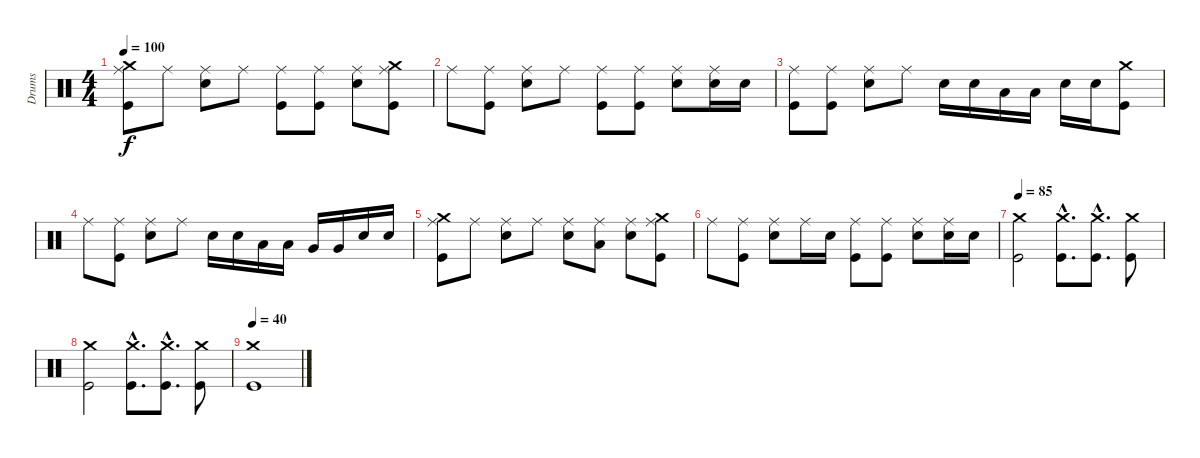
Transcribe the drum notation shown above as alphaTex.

\track ("Drums" "Drums") {instrument percussion}
\staff {score}
\articulation defaults
\ts (4 4)
\tempo 100
\clef neutral
\ks c
("Ride (middle)" "Crash medium (hit)" "Kick (hit)").8{dy f} "Ride (middle)".8 ("Ride (middle)" "Snare (hit) 2").8 "Ride (middle)".8 ("Ride (middle)" "Kick (hit)").8 ("Ride (middle)" "Kick (hit)").8 ("Ride (middle)" "Snare (hit) 2").8 ("Ride (middle)" "Crash medium (hit)" "Kick (hit)").8 |
"Ride (middle)".8 ("Ride (middle)" "Kick (hit)").8 ("Ride (middle)" "Snare (hit) 2").8 "Ride (middle)".8 ("Ride (middle)" "Kick (hit)").8 ("Ride (middle)" "Kick (hit)").8 ("Ride (middle)" "Snare (hit) 2").8 ("Ride (middle)" "Snare (hit) 2").16 "Snare (hit) 2".16 |
("Ride (middle)" "Kick (hit)").8 ("Ride (middle)" "Kick (hit)").8 ("Ride (middle)" "Snare (hit) 2").8 "Ride (middle)".8 "Snare (hit) 2".16 "Snare (hit) 2".16 "Low Tom (hit)".16 "Low Tom (hit)".16 "Snare (hit) 2".16 "Snare (hit) 2".16 ("Crash medium (hit)" "Kick (hit)").8 |
"Ride (middle)".8 ("Ride (middle)" "Kick (hit)").8 ("Ride (middle)" "Snare (hit) 2").8 "Ride (middle)".8 "Snare (hit) 2".16 "Snare (hit) 2".16 "Low Tom (hit)".16 "Low Tom (hit)".16 "Very Low Tom (hit)".16 "Very Low Tom (hit)".16 "Snare (hit) 2".16 "Snare (hit) 2".16 |
("Ride (middle)" "Crash medium (hit)" "Kick (hit)").8 "Ride (middle)".8 ("Ride (middle)" "Snare (hit) 2").8 "Ride (middle)".8 ("Ride (middle)" "Snare (hit) 2").8 ("Ride (middle)" "Low Tom (hit)").8 ("Ride (middle)" "Snare (hit) 2").8 ("Ride (middle)" "Crash medium (hit)" "Kick (hit)").8 |
"Ride (middle)".8 ("Ride (middle)" "Kick (hit)").8 ("Ride (middle)" "Snare (hit) 2").8 "Ride (middle)".16 "Snare (hit) 2".16 ("Ride (middle)" "Kick (hit)").8 ("Ride (middle)" "Kick (hit)").8 ("Ride (middle)" "Snare (hit) 2").8 ("Ride (middle)" "Snare (hit) 2").16 "Snare (hit) 2".16 |
\tempo 85
("Crash medium (hit)" "Kick (hit)").2 ("Crash medium (hit)"{hac} "Kick (hit)"{hac}).8{d} ("Crash medium (hit)"{hac} "Kick (hit)"{hac}).8{d} ("Crash medium (hit)" "Kick (hit)").8 |
("Crash medium (hit)" "Kick (hit)").2 ("Crash medium (hit)"{hac} "Kick (hit)"{hac}).8{d} ("Crash medium (hit)"{hac} "Kick (hit)"{hac}).8{d} ("Crash medium (hit)" "Kick (hit)").8 |
\tempo 40
("Crash medium (hit)" "Kick (hit)").1
